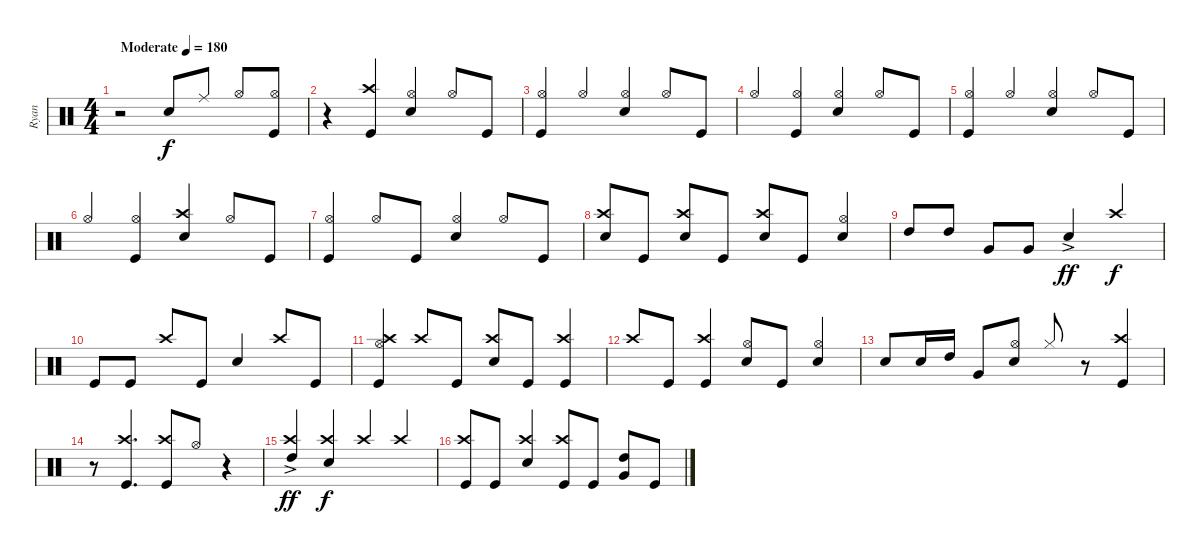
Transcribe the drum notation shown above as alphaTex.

\track ("Ryan" "Ryan") {instrument percussion}
\staff {score}
\articulation defaults
\ts (4 4)
\tempo (180 "Moderate")
\clef neutral
\ks c
r.2{dy f} "Snare (hit) 2".8{beam Up} "Ride (middle)".8{beam Up} "Hi-Hat (open)".8{beam Up} ("Kick (hit)" "Hi-Hat (open)").8{beam Up} |
r.4 ("Kick (hit)" "Crash high (hit)").4{beam Up} ("Snare (hit) 2" "Hi-Hat (open)").4{beam Up} "Hi-Hat (open)".8{beam Up} "Kick (hit)".8{beam Up} |
("Kick (hit)" "Hi-Hat (open)").4{beam Up} "Hi-Hat (open)".4{beam Up} ("Snare (hit) 2" "Hi-Hat (open)").4{beam Up} "Hi-Hat (open)".8{beam Up} "Kick (hit)".8{beam Up} |
"Hi-Hat (open)".4{beam Up} ("Kick (hit)" "Hi-Hat (open)").4{beam Up} ("Snare (hit) 2" "Hi-Hat (open)").4{beam Up} "Hi-Hat (open)".8{beam Up} "Kick (hit)".8{beam Up} |
("Kick (hit)" "Hi-Hat (open)").4{beam Up} "Hi-Hat (open)".4{beam Up} ("Snare (hit) 2" "Hi-Hat (open)").4{beam Up} "Hi-Hat (open)".8{beam Up} "Kick (hit)".8{beam Up} |
"Hi-Hat (open)".4{beam Up} ("Kick (hit)" "Hi-Hat (open)").4{beam Up} ("Snare (hit) 2" "Crash high (hit)").4{beam Up} "Hi-Hat (open)".8{beam Up} "Kick (hit)".8{beam Up} |
("Kick (hit)" "Hi-Hat (open)").4{beam Up} "Hi-Hat (open)".8{beam Up} "Kick (hit)".8{beam Up} ("Snare (hit) 2" "Hi-Hat (open)").4{beam Up} "Hi-Hat (open)".8{beam Up} "Kick (hit)".8{beam Up} |
("Snare (hit) 2" "Crash high (hit)").8{beam Up} "Kick (hit)".8{beam Up} ("Snare (hit) 2" "Crash high (hit)").8{beam Up} "Kick (hit)".8{beam Up} ("Snare (hit) 2" "Crash high (hit)").8{beam Up} "Kick (hit)".8{beam Up} ("Snare (hit) 2" "Hi-Hat (open)").4{beam Up} |
"High Tom (hit)".8{beam Up} "High Tom (hit)".8{beam Up} "Very Low Tom (hit)".8 "Very Low Tom (hit)".8 "Snare (hit) 2"{ac}.4{dy ff beam Up} "Crash high (hit)".4{dy f beam Up} |
"Kick (hit)".8 "Kick (hit)".8 "Crash high (hit)".8{beam Up} "Kick (hit)".8{beam Up} "Snare (hit) 2".4{beam Up} "Crash high (hit)".8{beam Up} "Kick (hit)".8{beam Up} |
("Kick (hit)" "Crash high (hit)" "Hi-Hat (open)").4{beam Up} "Crash high (hit)".8{beam Up} "Kick (hit)".8{beam Up} ("Snare (hit) 2" "Crash high (hit)").8{beam Up} "Kick (hit)".8{beam Up} ("Kick (hit)" "Crash high (hit)").4{beam Up} |
"Crash high (hit)".8{beam Up} "Kick (hit)".8{beam Up} ("Kick (hit)" "Crash high (hit)").4{beam Up} ("Snare (hit) 2" "Hi-Hat (open)").8{beam Up} "Kick (hit)".8{beam Up} ("Snare (hit) 2" "Hi-Hat (open)").4{beam Up} |
"Snare (hit) 2".8{beam Up} "Snare (hit) 2".16{beam Up} "High Tom (hit)".16{beam Up} "Very Low Tom (hit)".8{beam Up} ("Snare (hit) 2" "Hi-Hat (open)").8{beam Up} "Hi-Hat (closed)".8{beam Up} r.8 ("Kick (hit)" "Crash high (hit)").4{beam Up} |
r.8 ("Kick (hit)" "Crash high (hit)").4{d beam Up} ("Kick (hit)" "Crash high (hit)").8{beam Up} "Hi-Hat (open)".8{beam Up} r.4 |
("High Tom (hit)"{ac} "Crash high (hit)").4{dy ff beam Up} ("Snare (hit) 2" "Crash high (hit)").4{dy f beam Up} "Crash high (hit)".4{beam Up} "Crash high (hit)".4{beam Up} |
("Kick (hit)" "Crash high (hit)").8{beam Up} "Kick (hit)".8{beam Up} ("Snare (hit) 2" "Crash high (hit)").4{beam Up} ("Kick (hit)" "Crash high (hit)").8{beam Up} "Kick (hit)".8{beam Up} ("High Tom (hit)" "Very Low Tom (hit)").8{beam Up} "Kick (hit)".8{beam Up}
